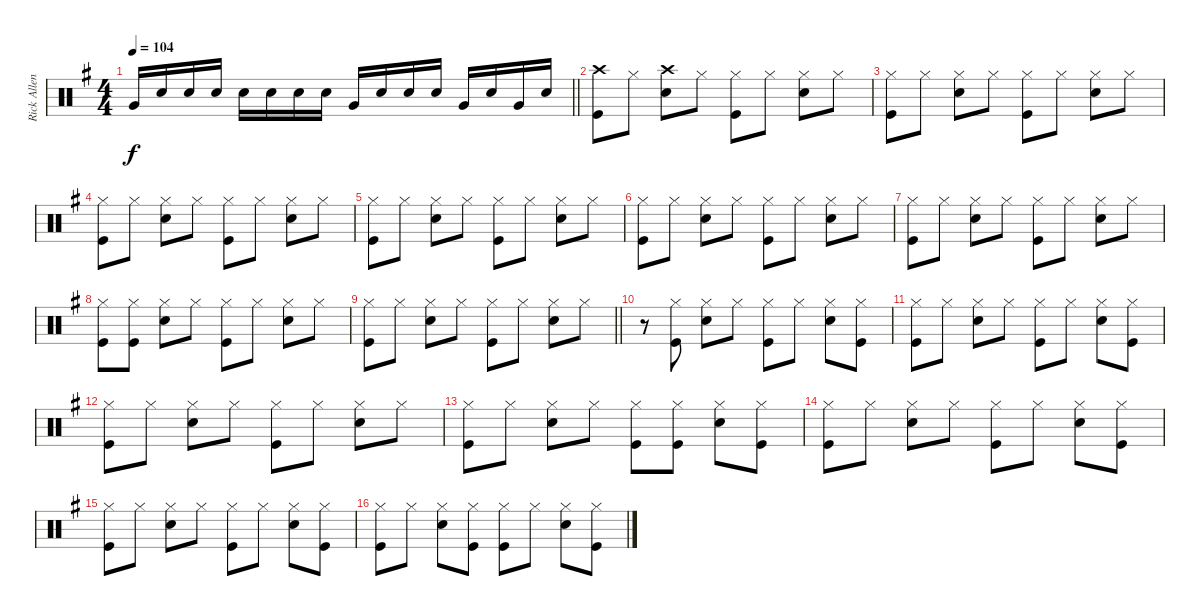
\track ("Rick Allen" "Rick Allen") {instrument percussion}
\staff {score}
\articulation defaults
\ts (4 4)
\tempo 104
\clef neutral
\barLineRight lightlight
\ks eminor "Very Low Tom (hit)".16{dy f} "Snare (hit) 2".16 "Snare (hit) 2".16 "Snare (hit) 2".16 "Snare (hit) 2".16 "Snare (hit) 2".16 "Snare (hit) 2".16 "Snare (hit) 2".16 "Very Low Tom (hit)".16 "Snare (hit) 2".16 "Snare (hit) 2".16 "Snare (hit) 2".16 "Very Low Tom (hit)".16 "Snare (hit) 2".16 "Very Low Tom (hit)".16 "Snare (hit) 2".16
|
("Crash high (hit)" "Kick (hit)").8 "Hi-Hat (closed)".8 ("Crash high (hit)" "Snare (hit) 2").8 "Hi-Hat (closed)".8 ("Hi-Hat (closed)" "Kick (hit)").8 "Hi-Hat (closed)".8 ("Hi-Hat (closed)" "Snare (hit) 2").8 "Hi-Hat (closed)".8 |
("Hi-Hat (closed)" "Kick (hit)").8 "Hi-Hat (closed)".8 ("Hi-Hat (closed)" "Snare (hit) 2").8 "Hi-Hat (closed)".8 ("Hi-Hat (closed)" "Kick (hit)").8 "Hi-Hat (closed)".8 ("Hi-Hat (closed)" "Snare (hit) 2").8 "Hi-Hat (closed)".8 |
("Hi-Hat (closed)" "Kick (hit)").8 "Hi-Hat (closed)".8 ("Hi-Hat (closed)" "Snare (hit) 2").8 "Hi-Hat (closed)".8 ("Hi-Hat (closed)" "Kick (hit)").8 "Hi-Hat (closed)".8 ("Hi-Hat (closed)" "Snare (hit) 2").8 "Hi-Hat (closed)".8 |
("Hi-Hat (closed)" "Kick (hit)").8 "Hi-Hat (closed)".8 ("Hi-Hat (closed)" "Snare (hit) 2").8 "Hi-Hat (closed)".8 ("Hi-Hat (closed)" "Kick (hit)").8 "Hi-Hat (closed)".8 ("Hi-Hat (closed)" "Snare (hit) 2").8 "Hi-Hat (closed)".8 |
("Hi-Hat (closed)" "Kick (hit)").8 "Hi-Hat (closed)".8 ("Hi-Hat (closed)" "Snare (hit) 2").8 "Hi-Hat (closed)".8 ("Hi-Hat (closed)" "Kick (hit)").8 "Hi-Hat (closed)".8 ("Hi-Hat (closed)" "Snare (hit) 2").8 "Hi-Hat (closed)".8 |
("Hi-Hat (closed)" "Kick (hit)").8 "Hi-Hat (closed)".8 ("Hi-Hat (closed)" "Snare (hit) 2").8 "Hi-Hat (closed)".8 ("Hi-Hat (closed)" "Kick (hit)").8 "Hi-Hat (closed)".8 ("Hi-Hat (closed)" "Snare (hit) 2").8 "Hi-Hat (closed)".8 |
("Hi-Hat (closed)" "Kick (hit)").8 ("Hi-Hat (closed)" "Kick (hit)").8 ("Hi-Hat (closed)" "Snare (hit) 2").8 "Hi-Hat (closed)".8 ("Hi-Hat (closed)" "Kick (hit)").8 "Hi-Hat (closed)".8 ("Hi-Hat (closed)" "Snare (hit) 2").8 "Hi-Hat (closed)".8 |
\barLineRight lightlight
("Hi-Hat (closed)" "Kick (hit)").8 "Hi-Hat (closed)".8 ("Hi-Hat (closed)" "Snare (hit) 2").8 "Hi-Hat (closed)".8 ("Hi-Hat (closed)" "Kick (hit)").8 "Hi-Hat (closed)".8 ("Hi-Hat (closed)" "Snare (hit) 2").8 "Hi-Hat (closed)".8 |
r.8 ("Hi-Hat (closed)" "Kick (hit)").8 ("Hi-Hat (closed)" "Snare (hit) 2").8 "Hi-Hat (closed)".8 ("Hi-Hat (closed)" "Kick (hit)").8 "Hi-Hat (closed)".8 ("Hi-Hat (closed)" "Snare (hit) 2").8 ("Hi-Hat (closed)" "Kick (hit)").8 |
("Hi-Hat (closed)" "Kick (hit)").8 "Hi-Hat (closed)".8 ("Hi-Hat (closed)" "Snare (hit) 2").8 "Hi-Hat (closed)".8 ("Hi-Hat (closed)" "Kick (hit)").8 "Hi-Hat (closed)".8 ("Hi-Hat (closed)" "Snare (hit) 2").8 ("Hi-Hat (closed)" "Kick (hit)").8 |
("Hi-Hat (closed)" "Kick (hit)").8 "Hi-Hat (closed)".8 ("Hi-Hat (closed)" "Snare (hit) 2").8 "Hi-Hat (closed)".8 ("Hi-Hat (closed)" "Kick (hit)").8 "Hi-Hat (closed)".8 ("Hi-Hat (closed)" "Snare (hit) 2").8 "Hi-Hat (closed)".8 |
("Hi-Hat (closed)" "Kick (hit)").8 "Hi-Hat (closed)".8 ("Hi-Hat (closed)" "Snare (hit) 2").8 "Hi-Hat (closed)".8 ("Hi-Hat (closed)" "Kick (hit)").8 ("Hi-Hat (closed)" "Kick (hit)").8 ("Hi-Hat (closed)" "Snare (hit) 2").8 ("Hi-Hat (closed)" "Kick (hit)").8 |
("Hi-Hat (closed)" "Kick (hit)").8 "Hi-Hat (closed)".8 ("Hi-Hat (closed)" "Snare (hit) 2").8 "Hi-Hat (closed)".8 ("Hi-Hat (closed)" "Kick (hit)").8 "Hi-Hat (closed)".8 ("Hi-Hat (closed)" "Snare (hit) 2").8 ("Hi-Hat (closed)" "Kick (hit)").8 |
("Hi-Hat (closed)" "Kick (hit)").8 "Hi-Hat (closed)".8 ("Hi-Hat (closed)" "Snare (hit) 2").8 "Hi-Hat (closed)".8 ("Hi-Hat (closed)" "Kick (hit)").8 "Hi-Hat (closed)".8 ("Hi-Hat (closed)" "Snare (hit) 2").8 ("Hi-Hat (closed)" "Kick (hit)").8 |
("Hi-Hat (closed)" "Kick (hit)").8 "Hi-Hat (closed)".8 ("Hi-Hat (closed)" "Snare (hit) 2").8 ("Hi-Hat (closed)" "Kick (hit)").8 ("Hi-Hat (closed)" "Kick (hit)").8 "Hi-Hat (closed)".8 ("Hi-Hat (closed)" "Snare (hit) 2").8 ("Hi-Hat (closed)" "Kick (hit)").8
